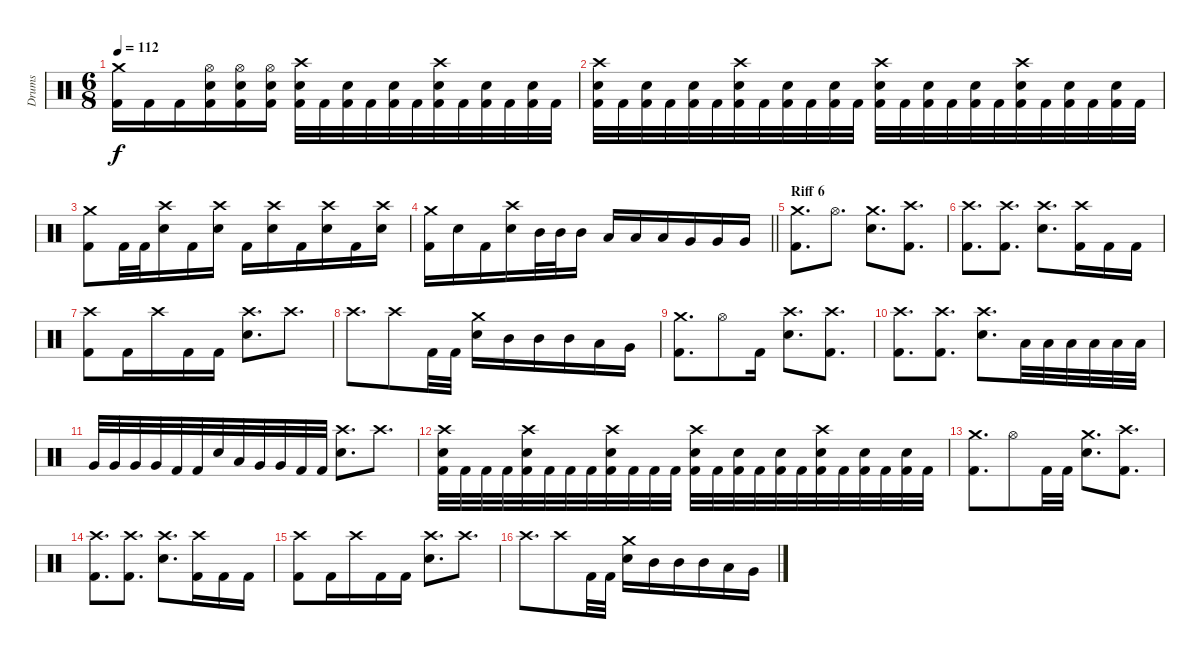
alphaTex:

\track ("Drums" "Drums") {instrument percussion}
\staff {score}
\articulation defaults
\ts (6 8)
\tempo 112
\clef neutral
\ks c
("Crash medium (hit)" "Kick (hit) 2").16{dy f} "Kick (hit) 2".16 "Kick (hit) 2".16 ("Hi-Hat (open)" "Electric Snare (hit)" "Kick (hit) 2").16 ("Hi-Hat (open)" "Electric Snare (hit)" "Kick (hit) 2").16 ("Hi-Hat (open)" "Electric Snare (hit)" "Kick (hit) 2").16 ("Crash high (hit)" "Electric Snare (hit)" "Kick (hit) 2").32 "Kick (hit) 2".32 ("Electric Snare (hit)" "Kick (hit) 2").32 "Kick (hit) 2".32 ("Electric Snare (hit)" "Kick (hit) 2").32 "Kick (hit) 2".32 ("Crash high (hit)" "Electric Snare (hit)" "Kick (hit) 2").32 "Kick (hit) 2".32 ("Electric Snare (hit)" "Kick (hit) 2").32 "Kick (hit) 2".32 ("Electric Snare (hit)" "Kick (hit) 2").32 "Kick (hit) 2".32 |
("Crash high (hit)" "Electric Snare (hit)" "Kick (hit) 2").32 "Kick (hit) 2".32 ("Electric Snare (hit)" "Kick (hit) 2").32 "Kick (hit) 2".32 ("Electric Snare (hit)" "Kick (hit) 2").32 "Kick (hit) 2".32 ("Crash high (hit)" "Electric Snare (hit)" "Kick (hit) 2").32 "Kick (hit) 2".32 ("Electric Snare (hit)" "Kick (hit) 2").32 "Kick (hit) 2".32 ("Electric Snare (hit)" "Kick (hit) 2").32 "Kick (hit) 2".32 ("Crash high (hit)" "Electric Snare (hit)" "Kick (hit) 2").32 "Kick (hit) 2".32 ("Electric Snare (hit)" "Kick (hit) 2").32 "Kick (hit) 2".32 ("Electric Snare (hit)" "Kick (hit) 2").32 "Kick (hit) 2".32 ("Crash high (hit)" "Electric Snare (hit)" "Kick (hit) 2").32 "Kick (hit) 2".32 ("Electric Snare (hit)" "Kick (hit) 2").32 "Kick (hit) 2".32 ("Electric Snare (hit)" "Kick (hit) 2").32 "Kick (hit) 2".32 |
("Kick (hit) 2" "Crash medium (hit)").8 "Kick (hit) 2".32 "Kick (hit) 2".32 ("Crash high (hit)" "Electric Snare (hit)").16 "Kick (hit) 2".16 ("Electric Snare (hit)" "Crash high (hit)").16 "Kick (hit) 2".16 ("Electric Snare (hit)" "Crash high (hit)").16 "Kick (hit) 2".16 ("Electric Snare (hit)" "Crash high (hit)").16 "Kick (hit) 2".16 ("Electric Snare (hit)" "Crash high (hit)").16 |
\barLineRight lightlight
("Crash medium (hit)" "Kick (hit) 2").16 "Electric Snare (hit)".16 "Kick (hit) 2".16 ("Electric Snare (hit)" "Crash high (hit)").16 "Mid Tom (hit)".32 "Mid Tom (hit)".32 "Mid Tom (hit)".16 "Low Tom (hit)".16 "Low Tom (hit)".16 "Low Tom (hit)".16 "Very Low Tom (hit)".16 "Very Low Tom (hit)".16 "Very Low Tom (hit)".16 |
\section ("" "Riff 6")
("Crash medium (hit)" "Kick (hit) 2").8{d} "Hi-Hat (open)".8{d} ("Crash medium (hit)" "Electric Snare (hit)").8{d} ("Crash high (hit)" "Kick (hit) 2").8{d} |
("Crash high (hit)" "Kick (hit) 2").8{d} ("Crash high (hit)" "Kick (hit) 2").8{d} ("Crash high (hit)" "Electric Snare (hit)").8{d} ("Crash high (hit)" "Kick (hit) 2").16 "Kick (hit) 2".16 "Kick (hit) 2".16 |
("Crash high (hit)" "Kick (hit) 2").8 "Kick (hit) 2".16 "Crash high (hit)".16 "Kick (hit) 2".16 "Kick (hit) 2".16 ("Electric Snare (hit)" "Crash high (hit)").8{d} "Crash high (hit)".8{d} |
"Crash high (hit)".8{d} "Crash high (hit)".8 "Kick (hit) 2".32 "Kick (hit) 2".32 ("Electric Snare (hit)" "Crash medium (hit)").16 "Mid Tom (hit)".16 "Mid Tom (hit)".16 "Mid Tom (hit)".16 "Low Tom (hit)".16 "Very Low Tom (hit)".16 |
("Crash medium (hit)" "Kick (hit) 2").8{d} "Hi-Hat (open)".8 "Kick (hit) 2".16 ("Electric Snare (hit)" "Crash high (hit)").8{d} ("Kick (hit) 2" "Crash high (hit)").8{d} |
("Crash high (hit)" "Kick (hit) 2").8{d} ("Crash high (hit)" "Kick (hit) 2").8{d} ("Crash high (hit)" "Electric Snare (hit)").8{d} "Low Tom (hit)".32 "Low Tom (hit)".32 "Low Tom (hit)".32 "Low Tom (hit)".32 "Low Tom (hit)".32 "Low Tom (hit)".32 |
"Very Low Tom (hit)".32 "Very Low Tom (hit)".32 "Very Low Tom (hit)".32 "Very Low Tom (hit)".32 "Kick (hit) 2".32 "Kick (hit) 2".32 "Electric Snare (hit)".32 "Low Tom (hit)".32 "Very Low Tom (hit)".32 "Very Low Tom (hit)".32 "Kick (hit) 2".32 "Kick (hit) 2".32 ("Crash high (hit)" "Electric Snare (hit)").8{d} "Crash high (hit)".8{d} |
("Electric Snare (hit)" "Kick (hit) 2" "Crash high (hit)").32 "Kick (hit) 2".32 "Kick (hit) 2".32 "Kick (hit) 2".32 ("Electric Snare (hit)" "Kick (hit) 2" "Crash high (hit)").32 "Kick (hit) 2".32 "Kick (hit) 2".32 "Kick (hit) 2".32 ("Electric Snare (hit)" "Kick (hit) 2" "Crash high (hit)").32 "Kick (hit) 2".32 "Kick (hit) 2".32 "Kick (hit) 2".32 ("Electric Snare (hit)" "Kick (hit) 2" "Crash high (hit)").32 "Kick (hit) 2".32 ("Electric Snare (hit)" "Kick (hit) 2").32 "Kick (hit) 2".32 ("Electric Snare (hit)" "Kick (hit) 2").32 "Kick (hit) 2".32 ("Electric Snare (hit)" "Kick (hit) 2" "Crash high (hit)").32 "Kick (hit) 2".32 ("Electric Snare (hit)" "Kick (hit) 2").32 "Kick (hit) 2".32 ("Electric Snare (hit)" "Kick (hit) 2").32 "Kick (hit) 2".32 |
("Crash medium (hit)" "Kick (hit) 2").8{d} "Hi-Hat (open)".8 "Kick (hit) 2".32 "Kick (hit) 2".32 ("Crash medium (hit)" "Electric Snare (hit)").8{d} ("Crash high (hit)" "Kick (hit) 2").8{d} |
("Crash high (hit)" "Kick (hit) 2").8{d} ("Crash high (hit)" "Kick (hit) 2").8{d} ("Crash high (hit)" "Electric Snare (hit)").8{d} ("Crash high (hit)" "Kick (hit) 2").16 "Kick (hit) 2".16 "Kick (hit) 2".16 |
("Crash high (hit)" "Kick (hit) 2").8 "Kick (hit) 2".16 "Crash high (hit)".16 "Kick (hit) 2".16 "Kick (hit) 2".16 ("Electric Snare (hit)" "Crash high (hit)").8{d} "Crash high (hit)".8{d} |
"Crash high (hit)".8{d} "Crash high (hit)".8 "Kick (hit) 2".32 "Kick (hit) 2".32 ("Electric Snare (hit)" "Crash medium (hit)").16 "Mid Tom (hit)".16 "Mid Tom (hit)".16 "Mid Tom (hit)".16 "Low Tom (hit)".16 "Very Low Tom (hit)".16
